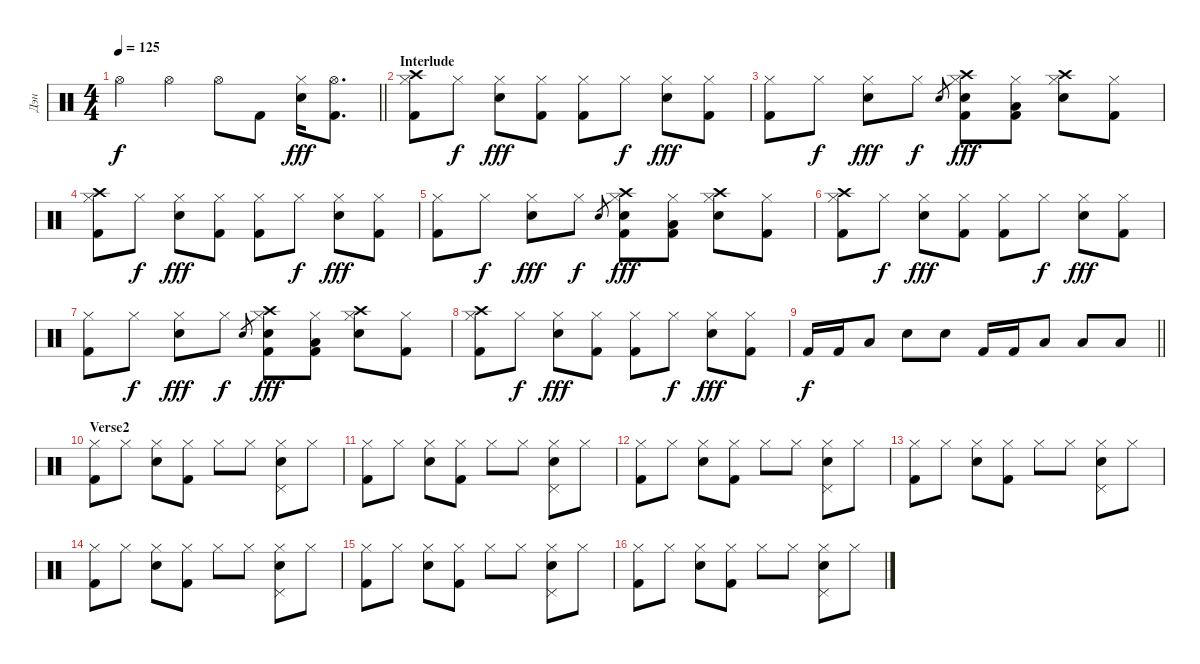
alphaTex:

\track ("Дэн" "Дэн") {instrument percussion}
\staff {score}
\articulation defaults
\ts (4 4)
\tempo 125
\clef neutral
\barLineRight lightlight
\ks c "Hi-Hat (open)".4{dy f} "Hi-Hat (open)".4 "Hi-Hat (open)".8 "Kick (hit) 2".8
("Hi-Hat (closed)" "Electric Snare (hit)").16{dy fff} ("Hi-Hat (open)" "Kick (hit) 2").8{d} |
\section ("" "Interlude")
("Crash high (hit)" "Hi-Hat (closed)" "Kick (hit) 2").8 "Hi-Hat (closed)".8{dy f} ("Hi-Hat (closed)" "Electric Snare (hit)").8{dy fff} ("Hi-Hat (closed)" "Kick (hit) 2").8 ("Hi-Hat (closed)" "Kick (hit) 2").8 "Hi-Hat (closed)".8{dy f} ("Hi-Hat (closed)" "Electric Snare (hit)").8{dy fff} ("Hi-Hat (closed)" "Kick (hit) 2").8 |
("Hi-Hat (closed)" "Kick (hit) 2").8 "Hi-Hat (closed)".8{dy f} ("Hi-Hat (closed)" "Electric Snare (hit)").8{dy fff} "Hi-Hat (closed)".8{dy f} "Electric Snare (hit)".8{gr} ("Crash high (hit)" "Hi-Hat (closed)" "Electric Snare (hit)" "Kick (hit) 2").8{dy fff} ("Hi-Hat (closed)" "Low Tom (hit)" "Kick (hit) 2").8 ("Crash high (hit)" "Hi-Hat (closed)" "Electric Snare (hit)").8 ("Hi-Hat (closed)" "Kick (hit) 2").8 |
("Crash high (hit)" "Hi-Hat (closed)" "Kick (hit) 2").8 "Hi-Hat (closed)".8{dy f} ("Hi-Hat (closed)" "Electric Snare (hit)").8{dy fff} ("Hi-Hat (closed)" "Kick (hit) 2").8 ("Hi-Hat (closed)" "Kick (hit) 2").8 "Hi-Hat (closed)".8{dy f} ("Hi-Hat (closed)" "Electric Snare (hit)").8{dy fff} ("Hi-Hat (closed)" "Kick (hit) 2").8 |
("Hi-Hat (closed)" "Kick (hit) 2").8 "Hi-Hat (closed)".8{dy f} ("Hi-Hat (closed)" "Electric Snare (hit)").8{dy fff} "Hi-Hat (closed)".8{dy f} "Electric Snare (hit)".8{gr} ("Crash high (hit)" "Hi-Hat (closed)" "Electric Snare (hit)" "Kick (hit) 2").8{dy fff} ("Hi-Hat (closed)" "Low Tom (hit)" "Kick (hit) 2").8 ("Crash high (hit)" "Hi-Hat (closed)" "Electric Snare (hit)").8 ("Hi-Hat (closed)" "Kick (hit) 2").8 |
("Crash high (hit)" "Hi-Hat (closed)" "Kick (hit) 2").8 "Hi-Hat (closed)".8{dy f} ("Hi-Hat (closed)" "Electric Snare (hit)").8{dy fff} ("Hi-Hat (closed)" "Kick (hit) 2").8 ("Hi-Hat (closed)" "Kick (hit) 2").8 "Hi-Hat (closed)".8{dy f} ("Hi-Hat (closed)" "Electric Snare (hit)").8{dy fff} ("Hi-Hat (closed)" "Kick (hit) 2").8 |
("Hi-Hat (closed)" "Kick (hit) 2").8 "Hi-Hat (closed)".8{dy f} ("Hi-Hat (closed)" "Electric Snare (hit)").8{dy fff} "Hi-Hat (closed)".8{dy f} "Electric Snare (hit)".8{gr} ("Crash high (hit)" "Hi-Hat (closed)" "Electric Snare (hit)" "Kick (hit) 2").8{dy fff} ("Hi-Hat (closed)" "Low Tom (hit)" "Kick (hit) 2").8 ("Crash high (hit)" "Hi-Hat (closed)" "Electric Snare (hit)").8 ("Hi-Hat (closed)" "Kick (hit) 2").8 |
("Crash high (hit)" "Hi-Hat (closed)" "Kick (hit) 2").8 "Hi-Hat (closed)".8{dy f} ("Hi-Hat (closed)" "Electric Snare (hit)").8{dy fff} ("Hi-Hat (closed)" "Kick (hit) 2").8 ("Hi-Hat (closed)" "Kick (hit) 2").8 "Hi-Hat (closed)".8{dy f} ("Hi-Hat (closed)" "Electric Snare (hit)").8{dy fff} ("Hi-Hat (closed)" "Kick (hit) 2").8 |
\barLineRight lightlight "Kick (hit) 2".16{dy f} "Kick (hit) 2".16 "Low Tom (hit)".8 "Electric Snare (hit)".8 "Electric Snare (hit)".8 "Kick (hit) 2".16 "Kick (hit) 2".16 "Low Tom (hit)".8 "Low Tom (hit)".8 "Low Tom (hit)".8
|
\section ("" "Verse2")
("Hi-Hat (closed)" "Kick (hit) 2").8 "Hi-Hat (closed)".8 ("Hi-Hat (closed)" "Electric Snare (hit)").8 ("Hi-Hat (closed)" "Kick (hit) 2").8 "Hi-Hat (closed)".8 "Hi-Hat (closed)".8 ("Hi-Hat (closed)" "Electric Snare (hit)" "Pedal Hi-Hat (hit)").8 "Hi-Hat (closed)".8 |
("Hi-Hat (closed)" "Kick (hit) 2").8 "Hi-Hat (closed)".8 ("Hi-Hat (closed)" "Electric Snare (hit)").8 ("Hi-Hat (closed)" "Kick (hit) 2").8 "Hi-Hat (closed)".8 "Hi-Hat (closed)".8 ("Hi-Hat (closed)" "Electric Snare (hit)" "Pedal Hi-Hat (hit)").8 "Hi-Hat (closed)".8 |
("Hi-Hat (closed)" "Kick (hit) 2").8 "Hi-Hat (closed)".8 ("Hi-Hat (closed)" "Electric Snare (hit)").8 ("Hi-Hat (closed)" "Kick (hit) 2").8 "Hi-Hat (closed)".8 "Hi-Hat (closed)".8 ("Hi-Hat (closed)" "Electric Snare (hit)" "Pedal Hi-Hat (hit)").8 "Hi-Hat (closed)".8 |
("Hi-Hat (closed)" "Kick (hit) 2").8 "Hi-Hat (closed)".8 ("Hi-Hat (closed)" "Electric Snare (hit)").8 ("Hi-Hat (closed)" "Kick (hit) 2").8 "Hi-Hat (closed)".8 "Hi-Hat (closed)".8 ("Hi-Hat (closed)" "Electric Snare (hit)" "Pedal Hi-Hat (hit)").8 "Hi-Hat (closed)".8 |
("Hi-Hat (closed)" "Kick (hit) 2").8 "Hi-Hat (closed)".8 ("Hi-Hat (closed)" "Electric Snare (hit)").8 ("Hi-Hat (closed)" "Kick (hit) 2").8 "Hi-Hat (closed)".8 "Hi-Hat (closed)".8 ("Hi-Hat (closed)" "Electric Snare (hit)" "Pedal Hi-Hat (hit)").8 "Hi-Hat (closed)".8 |
("Hi-Hat (closed)" "Kick (hit) 2").8 "Hi-Hat (closed)".8 ("Hi-Hat (closed)" "Electric Snare (hit)").8 ("Hi-Hat (closed)" "Kick (hit) 2").8 "Hi-Hat (closed)".8 "Hi-Hat (closed)".8 ("Hi-Hat (closed)" "Electric Snare (hit)" "Pedal Hi-Hat (hit)").8 "Hi-Hat (closed)".8 |
("Hi-Hat (closed)" "Kick (hit) 2").8 "Hi-Hat (closed)".8 ("Hi-Hat (closed)" "Electric Snare (hit)").8 ("Hi-Hat (closed)" "Kick (hit) 2").8 "Hi-Hat (closed)".8 "Hi-Hat (closed)".8 ("Hi-Hat (closed)" "Electric Snare (hit)" "Pedal Hi-Hat (hit)").8 "Hi-Hat (closed)".8
